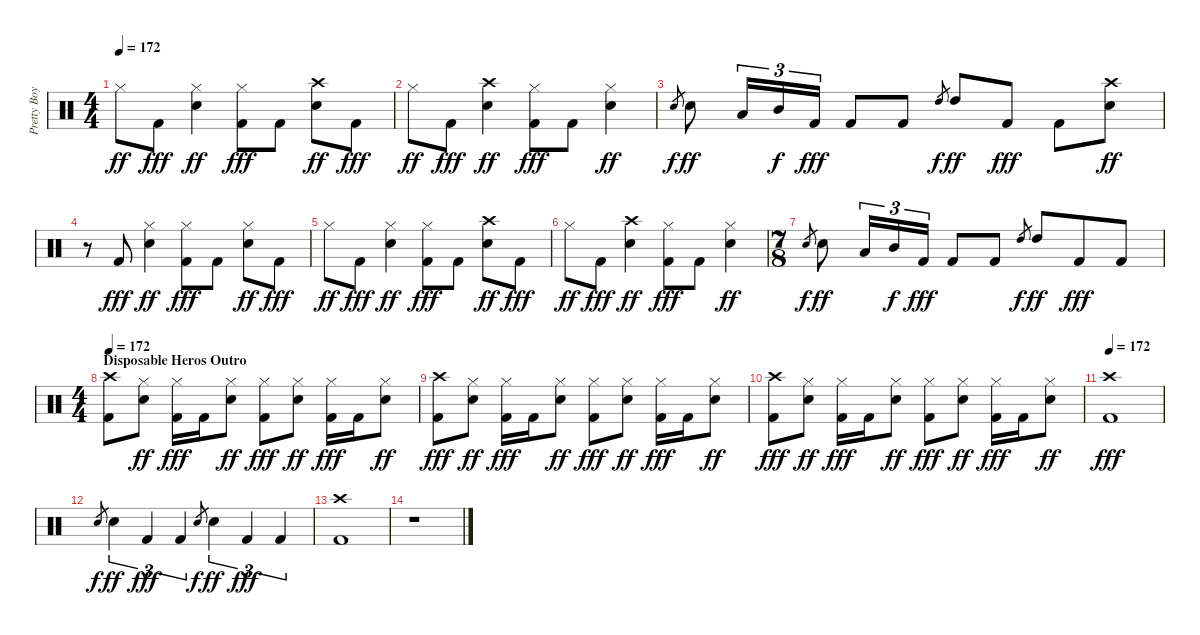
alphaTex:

\track ("Pretty Boy Geoff (Lars Drums)" "Pretty Boy") {instrument percussion}
\staff {score}
\articulation defaults
\ts (4 4)
\tempo 172
\clef neutral
\ks c "Hi-Hat (closed)".8{dy ff} "Kick (hit) 2".8{dy fff}
("Hi-Hat (closed)" "Snare (hit) 2").4{dy ff} ("Hi-Hat (closed)" "Kick (hit) 2").8{dy fff} "Kick (hit) 2".8 ("Crash high (hit)" "Snare (hit) 2").8{dy ff} "Kick (hit) 2".8{dy fff} |
"Hi-Hat (closed)".8{dy ff} "Kick (hit) 2".8{dy fff} ("Crash high (hit)" "Snare (hit) 2").4{dy ff} ("Hi-Hat (closed)" "Kick (hit) 2").8{dy fff} "Kick (hit) 2".8 ("Hi-Hat (closed)" "Snare (hit) 2").4{dy ff} |
"Snare (hit) 2"{sl}.8{gr dy f} "Snare (hit) 2".8{dy ff} "Low Tom (hit)".16{tu (3 2)} "Mid Tom (hit)".16{tu (3 2) dy f} "Kick (hit) 2".16{tu (3 2) dy fff} "Kick (hit) 2".8 "Kick (hit) 2".8 "High Tom (hit)"{sl}.8{gr dy f} "High Tom (hit)".8{dy ff} "Kick (hit) 2".8{dy fff} "Kick (hit) 2".8 ("Crash high (hit)" "Snare (hit) 2").8{dy ff} |
r.8 "Kick (hit) 2".8{dy fff} ("Hi-Hat (closed)" "Snare (hit) 2").4{dy ff} ("Hi-Hat (closed)" "Kick (hit) 2").8{dy fff} "Kick (hit) 2".8 ("Hi-Hat (closed)" "Snare (hit) 2").8{dy ff} "Kick (hit) 2".8{dy fff} |
"Hi-Hat (closed)".8{dy ff} "Kick (hit) 2".8{dy fff} ("Hi-Hat (closed)" "Snare (hit) 2").4{dy ff} ("Hi-Hat (closed)" "Kick (hit) 2").8{dy fff} "Kick (hit) 2".8 ("Crash high (hit)" "Snare (hit) 2").8{dy ff} "Kick (hit) 2".8{dy fff} |
"Hi-Hat (closed)".8{dy ff} "Kick (hit) 2".8{dy fff} ("Crash high (hit)" "Snare (hit) 2").4{dy ff} ("Hi-Hat (closed)" "Kick (hit) 2").8{dy fff} "Kick (hit) 2".8 ("Hi-Hat (closed)" "Snare (hit) 2").4{dy ff} |
\ts (7 8)
"Snare (hit) 2"{sl}.8{gr dy f} "Snare (hit) 2".8{dy ff} "Low Tom (hit)".16{tu (3 2)} "Mid Tom (hit)".16{tu (3 2) dy f} "Kick (hit) 2".16{tu (3 2) dy fff} "Kick (hit) 2".8 "Kick (hit) 2".8 "High Tom (hit)"{sl}.8{gr dy f} "High Tom (hit)".8{dy ff} "Kick (hit) 2".8{dy fff} "Kick (hit) 2".8 |
\ts (4 4)
\section ("" "Disposable Heros Outro")
\tempo 172
("Crash high (hit)" "Kick (hit) 2").8 ("Hi-Hat (closed)" "Snare (hit) 2").8{dy ff} ("Hi-Hat (closed)" "Kick (hit) 2").16{dy fff} "Kick (hit) 2".16 ("Hi-Hat (closed)" "Snare (hit) 2").8{dy ff} ("Hi-Hat (closed)" "Kick (hit) 2").8{dy fff} ("Hi-Hat (closed)" "Snare (hit) 2").8{dy ff} ("Hi-Hat (closed)" "Kick (hit) 2").16{dy fff} "Kick (hit) 2".16 ("Hi-Hat (closed)" "Snare (hit) 2").8{dy ff} |
("Crash high (hit)" "Kick (hit) 2").8{dy fff} ("Hi-Hat (closed)" "Snare (hit) 2").8{dy ff} ("Hi-Hat (closed)" "Kick (hit) 2").16{dy fff} "Kick (hit) 2".16 ("Hi-Hat (closed)" "Snare (hit) 2").8{dy ff} ("Hi-Hat (closed)" "Kick (hit) 2").8{dy fff} ("Hi-Hat (closed)" "Snare (hit) 2").8{dy ff} ("Hi-Hat (closed)" "Kick (hit) 2").16{dy fff} "Kick (hit) 2".16 ("Hi-Hat (closed)" "Snare (hit) 2").8{dy ff} |
("Crash high (hit)" "Kick (hit) 2").8{dy fff} ("Hi-Hat (closed)" "Snare (hit) 2").8{dy ff} ("Hi-Hat (closed)" "Kick (hit) 2").16{dy fff} "Kick (hit) 2".16 ("Hi-Hat (closed)" "Snare (hit) 2").8{dy ff} ("Hi-Hat (closed)" "Kick (hit) 2").8{dy fff} ("Hi-Hat (closed)" "Snare (hit) 2").8{dy ff} ("Hi-Hat (closed)" "Kick (hit) 2").16{dy fff} "Kick (hit) 2".16 ("Hi-Hat (closed)" "Snare (hit) 2").8{dy ff} |
\tempo 172
("Crash high (hit)" "Kick (hit) 2").1{dy fff} |
"Snare (hit) 2".8{gr dy f} "Snare (hit) 2".4{tu (3 2) dy ff} "Kick (hit) 2".4{tu (3 2) dy fff} "Kick (hit) 2".4{tu (3 2)} "Snare (hit) 2".8{gr dy f} "Snare (hit) 2".4{tu (3 2) dy ff} "Kick (hit) 2".4{tu (3 2) dy fff} "Kick (hit) 2".4{tu (3 2)} |
("Crash high (hit)" "Kick (hit) 2").1 |
r.1
